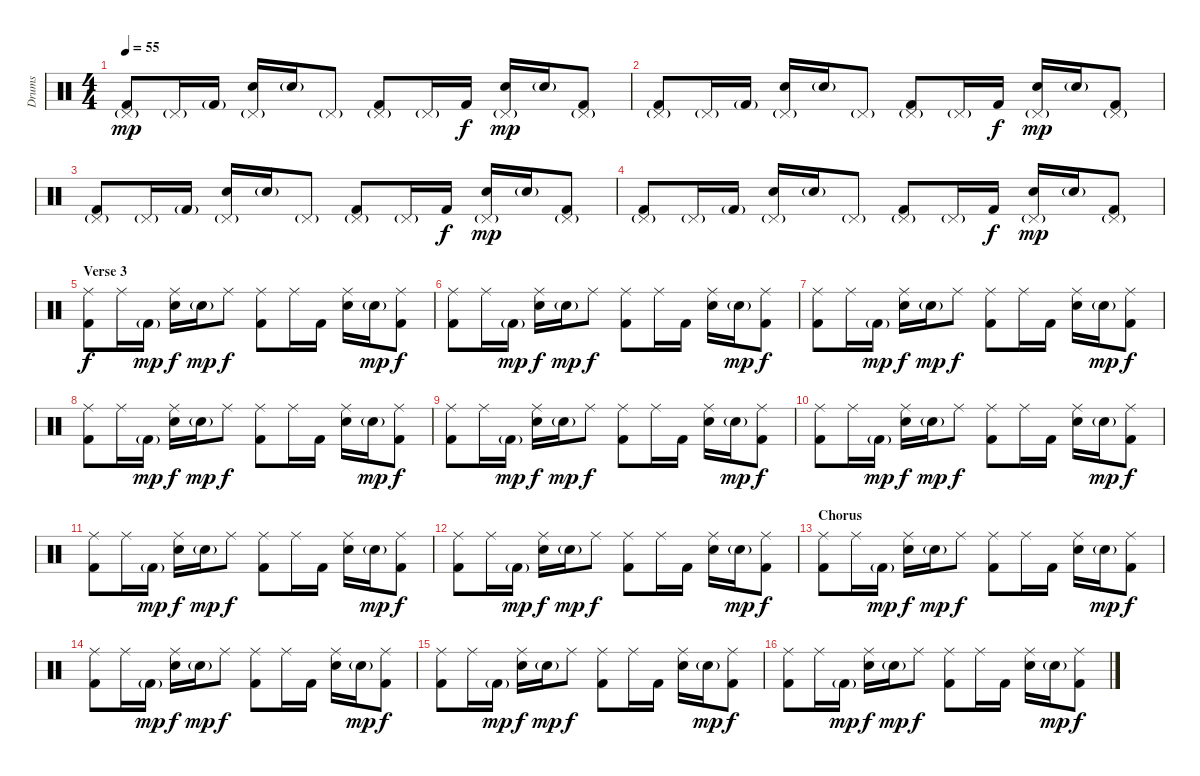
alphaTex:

\track ("Drums" "Drums") {instrument percussion}
\staff {score}
\articulation defaults
\ts (4 4)
\tempo 55
\clef neutral
\ks c
("Pedal Hi-Hat (hit)"{g} "Kick (hit) 2").8{dy mp} "Pedal Hi-Hat (hit)"{g}.16 "Kick (hit) 2"{g}.16 ("Pedal Hi-Hat (hit)"{g} "Electric Snare (hit)").16 "Electric Snare (hit)"{g}.16 "Pedal Hi-Hat (hit)"{g}.8 ("Pedal Hi-Hat (hit)"{g} "Kick (hit) 2").8 "Pedal Hi-Hat (hit)"{g}.16 "Kick (hit) 2".16{dy f} ("Pedal Hi-Hat (hit)"{g} "Electric Snare (hit)").16{dy mp} "Electric Snare (hit)"{g}.16 ("Pedal Hi-Hat (hit)"{g} "Kick (hit) 2").8 |
("Pedal Hi-Hat (hit)"{g} "Kick (hit) 2").8 "Pedal Hi-Hat (hit)"{g}.16 "Kick (hit) 2"{g}.16 ("Pedal Hi-Hat (hit)"{g} "Electric Snare (hit)").16 "Electric Snare (hit)"{g}.16 "Pedal Hi-Hat (hit)"{g}.8 ("Pedal Hi-Hat (hit)"{g} "Kick (hit) 2").8 "Pedal Hi-Hat (hit)"{g}.16 "Kick (hit) 2".16{dy f} ("Pedal Hi-Hat (hit)"{g} "Electric Snare (hit)").16{dy mp} "Electric Snare (hit)"{g}.16 ("Pedal Hi-Hat (hit)"{g} "Kick (hit) 2").8 |
("Pedal Hi-Hat (hit)"{g} "Kick (hit) 2").8 "Pedal Hi-Hat (hit)"{g}.16 "Kick (hit) 2"{g}.16 ("Pedal Hi-Hat (hit)"{g} "Electric Snare (hit)").16 "Electric Snare (hit)"{g}.16 "Pedal Hi-Hat (hit)"{g}.8 ("Pedal Hi-Hat (hit)"{g} "Kick (hit) 2").8 "Pedal Hi-Hat (hit)"{g}.16 "Kick (hit) 2".16{dy f} ("Pedal Hi-Hat (hit)"{g} "Electric Snare (hit)").16{dy mp} "Electric Snare (hit)"{g}.16 ("Pedal Hi-Hat (hit)"{g} "Kick (hit) 2").8 |
("Pedal Hi-Hat (hit)"{g} "Kick (hit) 2").8 "Pedal Hi-Hat (hit)"{g}.16 "Kick (hit) 2"{g}.16 ("Pedal Hi-Hat (hit)"{g} "Electric Snare (hit)").16 "Electric Snare (hit)"{g}.16 "Pedal Hi-Hat (hit)"{g}.8 ("Pedal Hi-Hat (hit)"{g} "Kick (hit) 2").8 "Pedal Hi-Hat (hit)"{g}.16 "Kick (hit) 2".16{dy f} ("Pedal Hi-Hat (hit)"{g} "Electric Snare (hit)").16{dy mp} "Electric Snare (hit)"{g}.16 ("Pedal Hi-Hat (hit)"{g} "Kick (hit) 2").8 |
\section ("" "Verse 3")
("Ride (middle)" "Kick (hit) 2").8{dy f volume 13} "Ride (middle)".16 "Kick (hit) 2"{g}.16{dy mp} ("Ride (middle)" "Electric Snare (hit)").16{dy f} "Electric Snare (hit)"{g}.16{dy mp} "Ride (middle)".8{dy f} ("Ride (middle)" "Kick (hit) 2").8 "Ride (middle)".16 "Kick (hit) 2".16 ("Ride (middle)" "Electric Snare (hit)").16 "Electric Snare (hit)"{g}.16{dy mp} ("Ride (middle)" "Kick (hit) 2").8{dy f} |
("Ride (middle)" "Kick (hit) 2").8 "Ride (middle)".16 "Kick (hit) 2"{g}.16{dy mp} ("Ride (middle)" "Electric Snare (hit)").16{dy f} "Electric Snare (hit)"{g}.16{dy mp} "Ride (middle)".8{dy f} ("Ride (middle)" "Kick (hit) 2").8 "Ride (middle)".16 "Kick (hit) 2".16 ("Ride (middle)" "Electric Snare (hit)").16 "Electric Snare (hit)"{g}.16{dy mp} ("Ride (middle)" "Kick (hit) 2").8{dy f} |
("Ride (middle)" "Kick (hit) 2").8 "Ride (middle)".16 "Kick (hit) 2"{g}.16{dy mp} ("Ride (middle)" "Electric Snare (hit)").16{dy f} "Electric Snare (hit)"{g}.16{dy mp} "Ride (middle)".8{dy f} ("Ride (middle)" "Kick (hit) 2").8 "Ride (middle)".16 "Kick (hit) 2".16 ("Ride (middle)" "Electric Snare (hit)").16 "Electric Snare (hit)"{g}.16{dy mp} ("Ride (middle)" "Kick (hit) 2").8{dy f} |
("Ride (middle)" "Kick (hit) 2").8 "Ride (middle)".16 "Kick (hit) 2"{g}.16{dy mp} ("Ride (middle)" "Electric Snare (hit)").16{dy f} "Electric Snare (hit)"{g}.16{dy mp} "Ride (middle)".8{dy f} ("Ride (middle)" "Kick (hit) 2").8 "Ride (middle)".16 "Kick (hit) 2".16 ("Ride (middle)" "Electric Snare (hit)").16 "Electric Snare (hit)"{g}.16{dy mp} ("Ride (middle)" "Kick (hit) 2").8{dy f} |
("Ride (middle)" "Kick (hit) 2").8 "Ride (middle)".16 "Kick (hit) 2"{g}.16{dy mp} ("Ride (middle)" "Electric Snare (hit)").16{dy f} "Electric Snare (hit)"{g}.16{dy mp} "Ride (middle)".8{dy f} ("Ride (middle)" "Kick (hit) 2").8 "Ride (middle)".16 "Kick (hit) 2".16 ("Ride (middle)" "Electric Snare (hit)").16 "Electric Snare (hit)"{g}.16{dy mp} ("Ride (middle)" "Kick (hit) 2").8{dy f} |
("Ride (middle)" "Kick (hit) 2").8 "Ride (middle)".16 "Kick (hit) 2"{g}.16{dy mp} ("Ride (middle)" "Electric Snare (hit)").16{dy f} "Electric Snare (hit)"{g}.16{dy mp} "Ride (middle)".8{dy f} ("Ride (middle)" "Kick (hit) 2").8 "Ride (middle)".16 "Kick (hit) 2".16 ("Ride (middle)" "Electric Snare (hit)").16 "Electric Snare (hit)"{g}.16{dy mp} ("Ride (middle)" "Kick (hit) 2").8{dy f} |
("Ride (middle)" "Kick (hit) 2").8 "Ride (middle)".16 "Kick (hit) 2"{g}.16{dy mp} ("Ride (middle)" "Electric Snare (hit)").16{dy f} "Electric Snare (hit)"{g}.16{dy mp} "Ride (middle)".8{dy f} ("Ride (middle)" "Kick (hit) 2").8 "Ride (middle)".16 "Kick (hit) 2".16 ("Ride (middle)" "Electric Snare (hit)").16 "Electric Snare (hit)"{g}.16{dy mp} ("Ride (middle)" "Kick (hit) 2").8{dy f} |
("Ride (middle)" "Kick (hit) 2").8 "Ride (middle)".16 "Kick (hit) 2"{g}.16{dy mp} ("Ride (middle)" "Electric Snare (hit)").16{dy f} "Electric Snare (hit)"{g}.16{dy mp} "Ride (middle)".8{dy f} ("Ride (middle)" "Kick (hit) 2").8 "Ride (middle)".16 "Kick (hit) 2".16 ("Ride (middle)" "Electric Snare (hit)").16 "Electric Snare (hit)"{g}.16{dy mp} ("Ride (middle)" "Kick (hit) 2").8{dy f} |
\section ("" "Chorus")
("Ride (middle)" "Kick (hit) 2").8 "Ride (middle)".16 "Kick (hit) 2"{g}.16{dy mp} ("Ride (middle)" "Electric Snare (hit)").16{dy f} "Electric Snare (hit)"{g}.16{dy mp} "Ride (middle)".8{dy f} ("Ride (middle)" "Kick (hit) 2").8 "Ride (middle)".16 "Kick (hit) 2".16 ("Ride (middle)" "Electric Snare (hit)").16 "Electric Snare (hit)"{g}.16{dy mp} ("Ride (middle)" "Kick (hit) 2").8{dy f} |
("Ride (middle)" "Kick (hit) 2").8 "Ride (middle)".16 "Kick (hit) 2"{g}.16{dy mp} ("Ride (middle)" "Electric Snare (hit)").16{dy f} "Electric Snare (hit)"{g}.16{dy mp} "Ride (middle)".8{dy f} ("Ride (middle)" "Kick (hit) 2").8 "Ride (middle)".16 "Kick (hit) 2".16 ("Ride (middle)" "Electric Snare (hit)").16 "Electric Snare (hit)"{g}.16{dy mp} ("Ride (middle)" "Kick (hit) 2").8{dy f} |
("Ride (middle)" "Kick (hit) 2").8 "Ride (middle)".16 "Kick (hit) 2"{g}.16{dy mp} ("Ride (middle)" "Electric Snare (hit)").16{dy f} "Electric Snare (hit)"{g}.16{dy mp} "Ride (middle)".8{dy f} ("Ride (middle)" "Kick (hit) 2").8 "Ride (middle)".16 "Kick (hit) 2".16 ("Ride (middle)" "Electric Snare (hit)").16 "Electric Snare (hit)"{g}.16{dy mp} ("Ride (middle)" "Kick (hit) 2").8{dy f} |
("Ride (middle)" "Kick (hit) 2").8 "Ride (middle)".16 "Kick (hit) 2"{g}.16{dy mp} ("Ride (middle)" "Electric Snare (hit)").16{dy f} "Electric Snare (hit)"{g}.16{dy mp} "Ride (middle)".8{dy f} ("Ride (middle)" "Kick (hit) 2").8 "Ride (middle)".16 "Kick (hit) 2".16 ("Ride (middle)" "Electric Snare (hit)").16 "Electric Snare (hit)"{g}.16{dy mp} ("Ride (middle)" "Kick (hit) 2").8{dy f}
